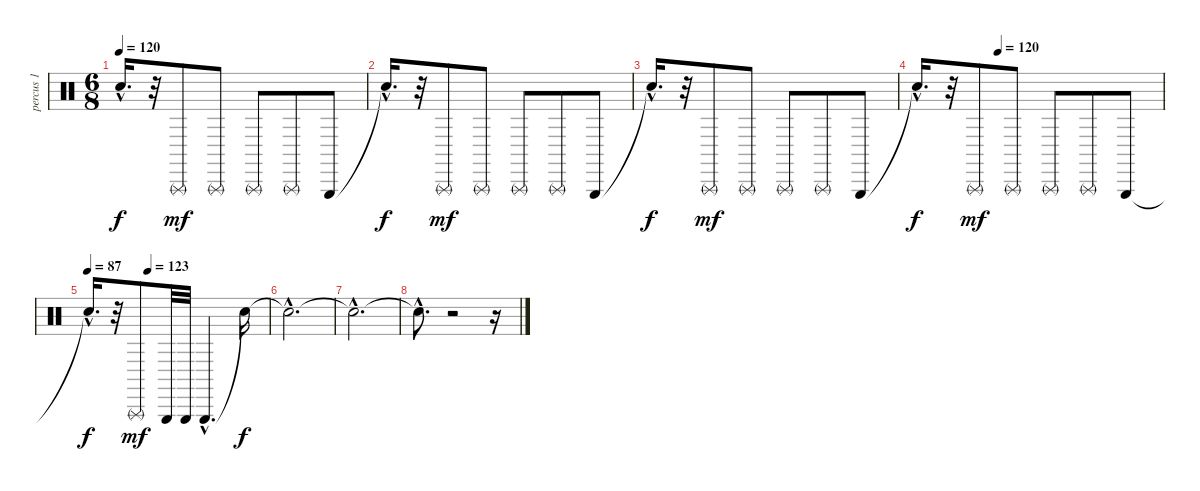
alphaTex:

\track ("percus 1" "percus 1") {instrument percussion}
\staff {score}
\articulation defaults
\ts (6 8)
\tempo 120
\clef neutral
\ks c "Snare (hit)"{hac t}.16{d dy f}
r.32 "Triangle (rnute)".8{dy mf} "Triangle (rnute)".8 "Triangle (rnute)".8 "Triangle (rnute)".8 "Triangle (hit)".8 |
"Snare (hit)"{hac t}.16{d dy f} r.32 "Triangle (rnute)".8{dy mf} "Triangle (rnute)".8 "Triangle (rnute)".8 "Triangle (rnute)".8 "Triangle (hit)".8 |
"Snare (hit)"{hac t}.16{d dy f} r.32 "Triangle (rnute)".8{dy mf} "Triangle (rnute)".8 "Triangle (rnute)".8 "Triangle (rnute)".8 "Triangle (hit)".8 |
\tempo (120 0.3333333333333333)
"Snare (hit)"{hac t}.16{d dy f} r.32 "Triangle (rnute)".8{dy mf} "Triangle (rnute)".8 "Triangle (rnute)".8 "Triangle (rnute)".8 "Triangle (hit)".8 |
\tempo 87
\tempo (123 0.3333333333333333)
"Snare (hit)"{hac t}.16{d dy f} r.32 "Triangle (rnute)".8{dy mf} "Triangle (hit)".32 "Triangle (hit)".32 "Triangle (hit)"{hac}.4{d} "Snare (hit)"{t}.16{dy f} |
"Snare (hit)"{hac t}.2{d} |
"Snare (hit)"{hac t}.2{d} |
"Snare (hit)"{hac t}.8{d} r.2 r.16
